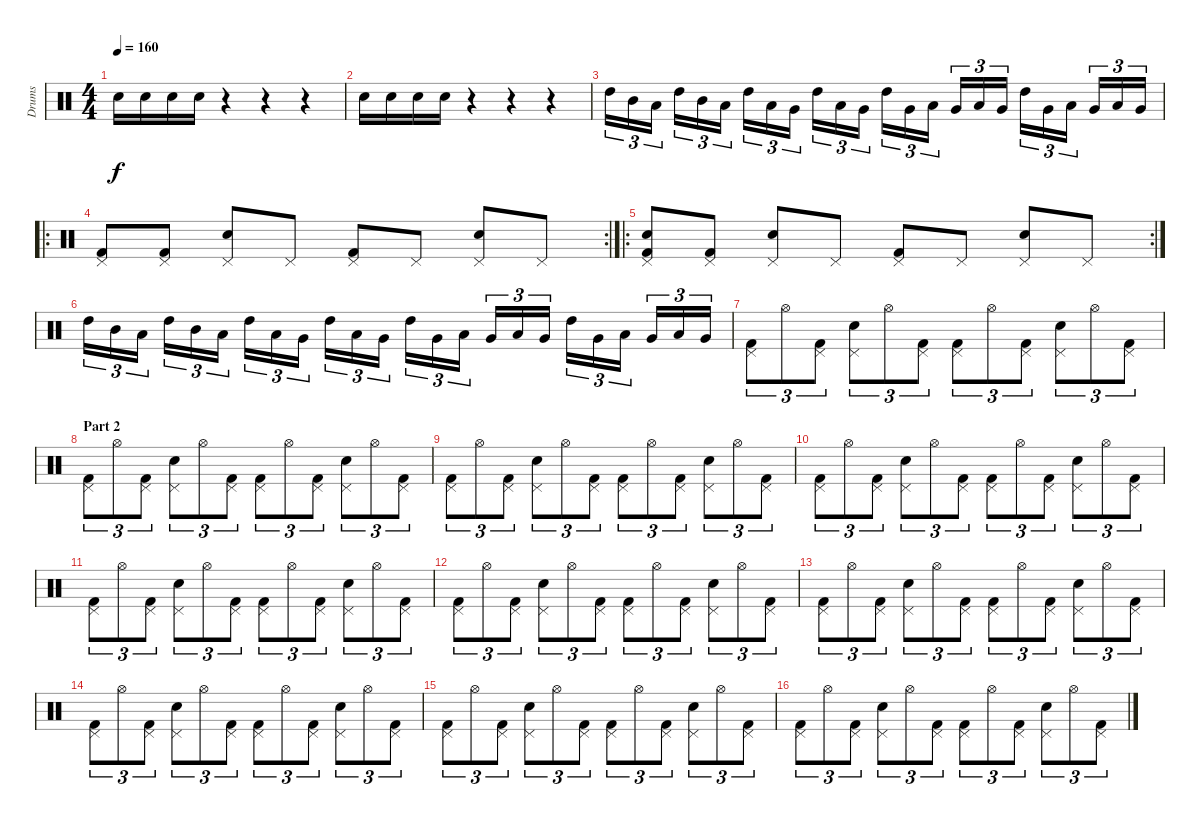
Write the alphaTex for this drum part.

\track ("Drums" "Drums") {instrument percussion}
\staff {score}
\articulation defaults
\ts (4 4)
\tempo 160
\clef neutral
\ks c "Electric Snare (hit)".16{dy f} "Electric Snare (hit)".16 "Electric Snare (hit)".16 "Electric Snare (hit)".16
r.4 r.4 r.4 |
"Electric Snare (hit)".16 "Electric Snare (hit)".16 "Electric Snare (hit)".16 "Electric Snare (hit)".16 r.4 r.4 r.4 |
"High Tom (hit)".16{tu (3 2)} "Mid Tom (hit)".16{tu (3 2)} "Low Tom (hit)".16{tu (3 2)} "High Tom (hit)".16{tu (3 2)} "Mid Tom (hit)".16{tu (3 2)} "Low Tom (hit)".16{tu (3 2)} "High Tom (hit)".16{tu (3 2)} "Low Tom (hit)".16{tu (3 2)} "Very Low Tom (hit)".16{tu (3 2)} "High Tom (hit)".16{tu (3 2)} "Low Tom (hit)".16{tu (3 2)} "Very Low Tom (hit)".16{tu (3 2)} "High Tom (hit)".16{tu (3 2)} "Very Low Tom (hit)".16{tu (3 2)} "Low Tom (hit)".16{tu (3 2)} "Very Low Tom (hit)".16{tu (3 2)} "Low Tom (hit)".16{tu (3 2)} "Very Low Tom (hit)".16{tu (3 2)} "High Tom (hit)".16{tu (3 2)} "Very Low Tom (hit)".16{tu (3 2)} "Low Tom (hit)".16{tu (3 2)} "Very Low Tom (hit)".16{tu (3 2)} "Low Tom (hit)".16{tu (3 2)} "Very Low Tom (hit)".16{tu (3 2)} |
\ro
\rc 2
("Pedal Hi-Hat (hit)" "Kick (hit) 2").8 ("Pedal Hi-Hat (hit)" "Kick (hit) 2").8 ("Pedal Hi-Hat (hit)" "Electric Snare (hit)").8 "Pedal Hi-Hat (hit)".8 ("Pedal Hi-Hat (hit)" "Kick (hit) 2").8 "Pedal Hi-Hat (hit)".8 ("Pedal Hi-Hat (hit)" "Electric Snare (hit)").8 "Pedal Hi-Hat (hit)".8 |
\ro
\rc 2
("Pedal Hi-Hat (hit)" "Electric Snare (hit)" "Kick (hit) 2").8 ("Pedal Hi-Hat (hit)" "Kick (hit) 2").8 ("Pedal Hi-Hat (hit)" "Electric Snare (hit)").8 "Pedal Hi-Hat (hit)".8 ("Pedal Hi-Hat (hit)" "Kick (hit) 2").8 "Pedal Hi-Hat (hit)".8 ("Pedal Hi-Hat (hit)" "Electric Snare (hit)").8 "Pedal Hi-Hat (hit)".8 |
"High Tom (hit)".16{tu (3 2)} "Mid Tom (hit)".16{tu (3 2)} "Low Tom (hit)".16{tu (3 2)} "High Tom (hit)".16{tu (3 2)} "Mid Tom (hit)".16{tu (3 2)} "Low Tom (hit)".16{tu (3 2)} "High Tom (hit)".16{tu (3 2)} "Low Tom (hit)".16{tu (3 2)} "Very Low Tom (hit)".16{tu (3 2)} "High Tom (hit)".16{tu (3 2)} "Low Tom (hit)".16{tu (3 2)} "Very Low Tom (hit)".16{tu (3 2)} "High Tom (hit)".16{tu (3 2)} "Very Low Tom (hit)".16{tu (3 2)} "Low Tom (hit)".16{tu (3 2)} "Very Low Tom (hit)".16{tu (3 2)} "Low Tom (hit)".16{tu (3 2)} "Very Low Tom (hit)".16{tu (3 2)} "High Tom (hit)".16{tu (3 2)} "Very Low Tom (hit)".16{tu (3 2)} "Low Tom (hit)".16{tu (3 2)} "Very Low Tom (hit)".16{tu (3 2)} "Low Tom (hit)".16{tu (3 2)} "Very Low Tom (hit)".16{tu (3 2)} |
("Pedal Hi-Hat (hit)" "Kick (hit) 2").8{tu (3 2)} "Hi-Hat (open)".8{tu (3 2)} ("Pedal Hi-Hat (hit)" "Kick (hit) 2").8{tu (3 2)} ("Pedal Hi-Hat (hit)" "Electric Snare (hit)").8{tu (3 2)} "Hi-Hat (open)".8{tu (3 2)} ("Pedal Hi-Hat (hit)" "Kick (hit) 2").8{tu (3 2)} ("Pedal Hi-Hat (hit)" "Kick (hit) 2").8{tu (3 2)} "Hi-Hat (open)".8{tu (3 2)} ("Pedal Hi-Hat (hit)" "Kick (hit) 2").8{tu (3 2)} ("Pedal Hi-Hat (hit)" "Electric Snare (hit)").8{tu (3 2)} "Hi-Hat (open)".8{tu (3 2)} ("Pedal Hi-Hat (hit)" "Kick (hit) 2").8{tu (3 2)} |
\section ("" "Part 2")
("Pedal Hi-Hat (hit)" "Kick (hit) 2").8{tu (3 2)} "Hi-Hat (open)".8{tu (3 2)} ("Pedal Hi-Hat (hit)" "Kick (hit) 2").8{tu (3 2)} ("Pedal Hi-Hat (hit)" "Electric Snare (hit)").8{tu (3 2)} "Hi-Hat (open)".8{tu (3 2)} ("Pedal Hi-Hat (hit)" "Kick (hit) 2").8{tu (3 2)} ("Pedal Hi-Hat (hit)" "Kick (hit) 2").8{tu (3 2)} "Hi-Hat (open)".8{tu (3 2)} ("Pedal Hi-Hat (hit)" "Kick (hit) 2").8{tu (3 2)} ("Pedal Hi-Hat (hit)" "Electric Snare (hit)").8{tu (3 2)} "Hi-Hat (open)".8{tu (3 2)} ("Pedal Hi-Hat (hit)" "Kick (hit) 2").8{tu (3 2)} |
("Pedal Hi-Hat (hit)" "Kick (hit) 2").8{tu (3 2)} "Hi-Hat (open)".8{tu (3 2)} ("Pedal Hi-Hat (hit)" "Kick (hit) 2").8{tu (3 2)} ("Pedal Hi-Hat (hit)" "Electric Snare (hit)").8{tu (3 2)} "Hi-Hat (open)".8{tu (3 2)} ("Pedal Hi-Hat (hit)" "Kick (hit) 2").8{tu (3 2)} ("Pedal Hi-Hat (hit)" "Kick (hit) 2").8{tu (3 2)} "Hi-Hat (open)".8{tu (3 2)} ("Pedal Hi-Hat (hit)" "Kick (hit) 2").8{tu (3 2)} ("Pedal Hi-Hat (hit)" "Electric Snare (hit)").8{tu (3 2)} "Hi-Hat (open)".8{tu (3 2)} ("Pedal Hi-Hat (hit)" "Kick (hit) 2").8{tu (3 2)} |
("Pedal Hi-Hat (hit)" "Kick (hit) 2").8{tu (3 2)} "Hi-Hat (open)".8{tu (3 2)} ("Pedal Hi-Hat (hit)" "Kick (hit) 2").8{tu (3 2)} ("Pedal Hi-Hat (hit)" "Electric Snare (hit)").8{tu (3 2)} "Hi-Hat (open)".8{tu (3 2)} ("Pedal Hi-Hat (hit)" "Kick (hit) 2").8{tu (3 2)} ("Pedal Hi-Hat (hit)" "Kick (hit) 2").8{tu (3 2)} "Hi-Hat (open)".8{tu (3 2)} ("Pedal Hi-Hat (hit)" "Kick (hit) 2").8{tu (3 2)} ("Pedal Hi-Hat (hit)" "Electric Snare (hit)").8{tu (3 2)} "Hi-Hat (open)".8{tu (3 2)} ("Pedal Hi-Hat (hit)" "Kick (hit) 2").8{tu (3 2)} |
("Pedal Hi-Hat (hit)" "Kick (hit) 2").8{tu (3 2)} "Hi-Hat (open)".8{tu (3 2)} ("Pedal Hi-Hat (hit)" "Kick (hit) 2").8{tu (3 2)} ("Pedal Hi-Hat (hit)" "Electric Snare (hit)").8{tu (3 2)} "Hi-Hat (open)".8{tu (3 2)} ("Pedal Hi-Hat (hit)" "Kick (hit) 2").8{tu (3 2)} ("Pedal Hi-Hat (hit)" "Kick (hit) 2").8{tu (3 2)} "Hi-Hat (open)".8{tu (3 2)} ("Pedal Hi-Hat (hit)" "Kick (hit) 2").8{tu (3 2)} ("Pedal Hi-Hat (hit)" "Electric Snare (hit)").8{tu (3 2)} "Hi-Hat (open)".8{tu (3 2)} ("Pedal Hi-Hat (hit)" "Kick (hit) 2").8{tu (3 2)} |
("Pedal Hi-Hat (hit)" "Kick (hit) 2").8{tu (3 2)} "Hi-Hat (open)".8{tu (3 2)} ("Pedal Hi-Hat (hit)" "Kick (hit) 2").8{tu (3 2)} ("Pedal Hi-Hat (hit)" "Electric Snare (hit)").8{tu (3 2)} "Hi-Hat (open)".8{tu (3 2)} ("Pedal Hi-Hat (hit)" "Kick (hit) 2").8{tu (3 2)} ("Pedal Hi-Hat (hit)" "Kick (hit) 2").8{tu (3 2)} "Hi-Hat (open)".8{tu (3 2)} ("Pedal Hi-Hat (hit)" "Kick (hit) 2").8{tu (3 2)} ("Pedal Hi-Hat (hit)" "Electric Snare (hit)").8{tu (3 2)} "Hi-Hat (open)".8{tu (3 2)} ("Pedal Hi-Hat (hit)" "Kick (hit) 2").8{tu (3 2)} |
("Pedal Hi-Hat (hit)" "Kick (hit) 2").8{tu (3 2)} "Hi-Hat (open)".8{tu (3 2)} ("Pedal Hi-Hat (hit)" "Kick (hit) 2").8{tu (3 2)} ("Pedal Hi-Hat (hit)" "Electric Snare (hit)").8{tu (3 2)} "Hi-Hat (open)".8{tu (3 2)} ("Pedal Hi-Hat (hit)" "Kick (hit) 2").8{tu (3 2)} ("Pedal Hi-Hat (hit)" "Kick (hit) 2").8{tu (3 2)} "Hi-Hat (open)".8{tu (3 2)} ("Pedal Hi-Hat (hit)" "Kick (hit) 2").8{tu (3 2)} ("Pedal Hi-Hat (hit)" "Electric Snare (hit)").8{tu (3 2)} "Hi-Hat (open)".8{tu (3 2)} ("Pedal Hi-Hat (hit)" "Kick (hit) 2").8{tu (3 2)} |
("Pedal Hi-Hat (hit)" "Kick (hit) 2").8{tu (3 2)} "Hi-Hat (open)".8{tu (3 2)} ("Pedal Hi-Hat (hit)" "Kick (hit) 2").8{tu (3 2)} ("Pedal Hi-Hat (hit)" "Electric Snare (hit)").8{tu (3 2)} "Hi-Hat (open)".8{tu (3 2)} ("Pedal Hi-Hat (hit)" "Kick (hit) 2").8{tu (3 2)} ("Pedal Hi-Hat (hit)" "Kick (hit) 2").8{tu (3 2)} "Hi-Hat (open)".8{tu (3 2)} ("Pedal Hi-Hat (hit)" "Kick (hit) 2").8{tu (3 2)} ("Pedal Hi-Hat (hit)" "Electric Snare (hit)").8{tu (3 2)} "Hi-Hat (open)".8{tu (3 2)} ("Pedal Hi-Hat (hit)" "Kick (hit) 2").8{tu (3 2)} |
("Pedal Hi-Hat (hit)" "Kick (hit) 2").8{tu (3 2)} "Hi-Hat (open)".8{tu (3 2)} ("Pedal Hi-Hat (hit)" "Kick (hit) 2").8{tu (3 2)} ("Pedal Hi-Hat (hit)" "Electric Snare (hit)").8{tu (3 2)} "Hi-Hat (open)".8{tu (3 2)} ("Pedal Hi-Hat (hit)" "Kick (hit) 2").8{tu (3 2)} ("Pedal Hi-Hat (hit)" "Kick (hit) 2").8{tu (3 2)} "Hi-Hat (open)".8{tu (3 2)} ("Pedal Hi-Hat (hit)" "Kick (hit) 2").8{tu (3 2)} ("Pedal Hi-Hat (hit)" "Electric Snare (hit)").8{tu (3 2)} "Hi-Hat (open)".8{tu (3 2)} ("Pedal Hi-Hat (hit)" "Kick (hit) 2").8{tu (3 2)} |
("Pedal Hi-Hat (hit)" "Kick (hit) 2").8{tu (3 2)} "Hi-Hat (open)".8{tu (3 2)} ("Pedal Hi-Hat (hit)" "Kick (hit) 2").8{tu (3 2)} ("Pedal Hi-Hat (hit)" "Electric Snare (hit)").8{tu (3 2)} "Hi-Hat (open)".8{tu (3 2)} ("Pedal Hi-Hat (hit)" "Kick (hit) 2").8{tu (3 2)} ("Pedal Hi-Hat (hit)" "Kick (hit) 2").8{tu (3 2)} "Hi-Hat (open)".8{tu (3 2)} ("Pedal Hi-Hat (hit)" "Kick (hit) 2").8{tu (3 2)} ("Pedal Hi-Hat (hit)" "Electric Snare (hit)").8{tu (3 2)} "Hi-Hat (open)".8{tu (3 2)} ("Pedal Hi-Hat (hit)" "Kick (hit) 2").8{tu (3 2)}
